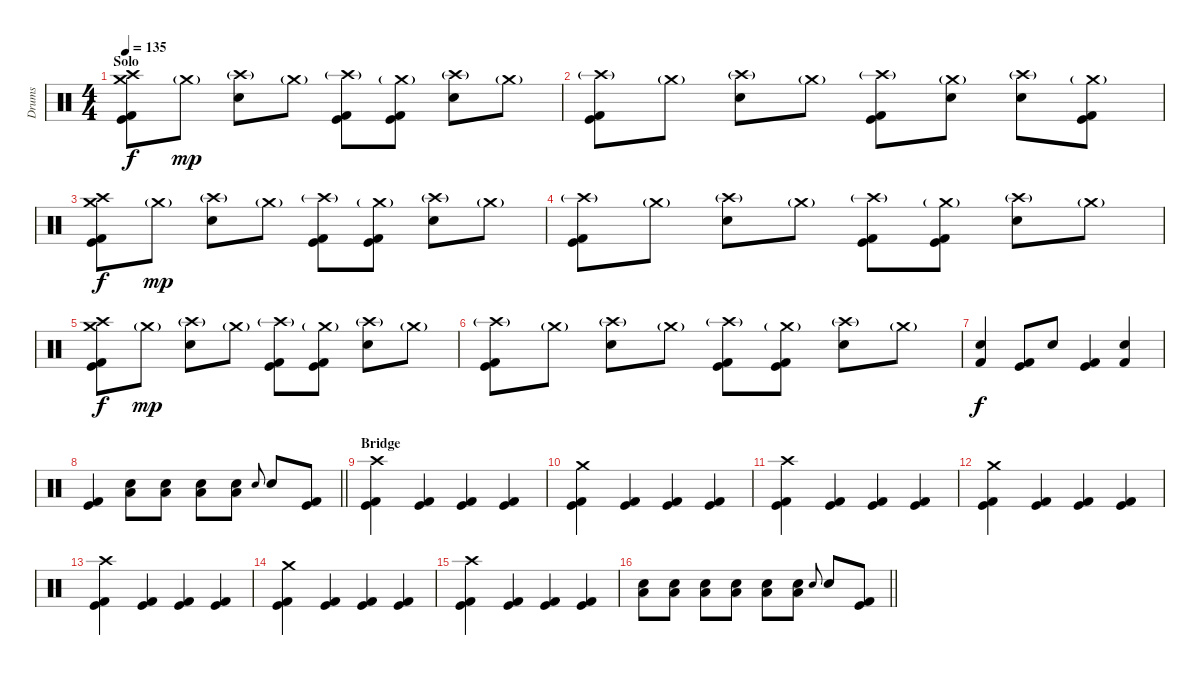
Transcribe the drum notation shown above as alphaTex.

\track ("Drums" "Drums") {instrument percussion}
\staff {score}
\articulation defaults
\ts (4 4)
\section ("" "Solo")
\tempo 135
\clef neutral
\ks c
("Crash high (hit)" "Crash medium (hit)" "Kick (hit)" "Kick (hit) 2").8{dy f} "Crash medium (hit)"{g}.8{dy mp} ("Crash high (hit)"{g} "Electric Snare (hit)").8 "Crash medium (hit)"{g}.8 ("Crash high (hit)"{g} "Kick (hit)" "Kick (hit) 2").8 ("Crash medium (hit)"{g} "Kick (hit)" "Kick (hit) 2").8 ("Crash high (hit)"{g} "Electric Snare (hit)").8 "Crash medium (hit)"{g}.8 |
("Crash high (hit)"{g} "Kick (hit)" "Kick (hit) 2").8 "Crash medium (hit)"{g}.8 ("Crash high (hit)"{g} "Electric Snare (hit)").8 "Crash medium (hit)"{g}.8 ("Crash high (hit)"{g} "Kick (hit)" "Kick (hit) 2").8 ("Crash medium (hit)"{g} "Electric Snare (hit)").8 ("Crash high (hit)"{g} "Electric Snare (hit)").8 ("Crash medium (hit)"{g} "Kick (hit)" "Kick (hit) 2").8 |
("Crash high (hit)" "Crash medium (hit)" "Kick (hit)" "Kick (hit) 2").8{dy f} "Crash medium (hit)"{g}.8{dy mp} ("Crash high (hit)"{g} "Electric Snare (hit)").8 "Crash medium (hit)"{g}.8 ("Crash high (hit)"{g} "Kick (hit)" "Kick (hit) 2").8 ("Crash medium (hit)"{g} "Kick (hit)" "Kick (hit) 2").8 ("Crash high (hit)"{g} "Electric Snare (hit)").8 "Crash medium (hit)"{g}.8 |
("Crash high (hit)"{g} "Kick (hit)" "Kick (hit) 2").8 "Crash medium (hit)"{g}.8 ("Crash high (hit)"{g} "Electric Snare (hit)").8 "Crash medium (hit)"{g}.8 ("Crash high (hit)"{g} "Kick (hit)" "Kick (hit) 2").8 ("Crash medium (hit)"{g} "Kick (hit)" "Kick (hit) 2").8 ("Crash high (hit)"{g} "Electric Snare (hit)").8 "Crash medium (hit)"{g}.8 |
("Crash high (hit)" "Crash medium (hit)" "Kick (hit)" "Kick (hit) 2").8{dy f} "Crash medium (hit)"{g}.8{dy mp} ("Crash high (hit)"{g} "Electric Snare (hit)").8 "Crash medium (hit)"{g}.8 ("Crash high (hit)"{g} "Kick (hit)" "Kick (hit) 2").8 ("Crash medium (hit)"{g} "Kick (hit)" "Kick (hit) 2").8 ("Crash high (hit)"{g} "Electric Snare (hit)").8 "Crash medium (hit)"{g}.8 |
("Crash high (hit)"{g} "Kick (hit)" "Kick (hit) 2").8 "Crash medium (hit)"{g}.8 ("Crash high (hit)"{g} "Electric Snare (hit)").8 "Crash medium (hit)"{g}.8 ("Crash high (hit)"{g} "Kick (hit)" "Kick (hit) 2").8 ("Crash medium (hit)"{g} "Kick (hit)" "Kick (hit) 2").8 ("Crash high (hit)"{g} "Electric Snare (hit)").8 "Crash medium (hit)"{g}.8 |
("Electric Snare (hit)" "Kick (hit) 2").4{dy f} ("Kick (hit)" "Kick (hit) 2").8 "Electric Snare (hit)".8 ("Kick (hit)" "Kick (hit) 2").4 ("Electric Snare (hit)" "Kick (hit) 2").4 |
\barLineRight lightlight
("Kick (hit)" "Kick (hit) 2").4 ("Electric Snare (hit)" "Low Floor Tom (hit)").8 ("Electric Snare (hit)" "Low Floor Tom (hit)").8 ("Electric Snare (hit)" "Low Floor Tom (hit)").8 ("Electric Snare (hit)" "Low Floor Tom (hit)").8 "Electric Snare (hit)".8{gr onbeat} "Electric Snare (hit)".8 ("Kick (hit)" "Kick (hit) 2").8 |
\section ("" "Bridge")
("Crash high (hit)" "Kick (hit)" "Kick (hit) 2").4 ("Kick (hit)" "Kick (hit) 2").4 ("Kick (hit)" "Kick (hit) 2").4 ("Kick (hit)" "Kick (hit) 2").4 |
("Crash medium (hit)" "Kick (hit)" "Kick (hit) 2").4 ("Kick (hit)" "Kick (hit) 2").4 ("Kick (hit)" "Kick (hit) 2").4 ("Kick (hit)" "Kick (hit) 2").4 |
("Crash high (hit)" "Kick (hit)" "Kick (hit) 2").4 ("Kick (hit)" "Kick (hit) 2").4 ("Kick (hit)" "Kick (hit) 2").4 ("Kick (hit)" "Kick (hit) 2").4 |
("Crash medium (hit)" "Kick (hit)" "Kick (hit) 2").4 ("Kick (hit)" "Kick (hit) 2").4 ("Kick (hit)" "Kick (hit) 2").4 ("Kick (hit)" "Kick (hit) 2").4 |
("Crash high (hit)" "Kick (hit)" "Kick (hit) 2").4 ("Kick (hit)" "Kick (hit) 2").4 ("Kick (hit)" "Kick (hit) 2").4 ("Kick (hit)" "Kick (hit) 2").4 |
("Crash medium (hit)" "Kick (hit)" "Kick (hit) 2").4 ("Kick (hit)" "Kick (hit) 2").4 ("Kick (hit)" "Kick (hit) 2").4 ("Kick (hit)" "Kick (hit) 2").4 |
("Crash high (hit)" "Kick (hit)" "Kick (hit) 2").4 ("Kick (hit)" "Kick (hit) 2").4 ("Kick (hit)" "Kick (hit) 2").4 ("Kick (hit)" "Kick (hit) 2").4 |
\barLineRight lightlight
("Electric Snare (hit)" "Low Floor Tom (hit)").8 ("Electric Snare (hit)" "Low Floor Tom (hit)").8 ("Electric Snare (hit)" "Low Floor Tom (hit)").8 ("Electric Snare (hit)" "Low Floor Tom (hit)").8 ("Electric Snare (hit)" "Low Floor Tom (hit)").8 ("Electric Snare (hit)" "Low Floor Tom (hit)").8 "Electric Snare (hit)".8{gr onbeat} "Electric Snare (hit)".8 ("Kick (hit)" "Kick (hit) 2").8
